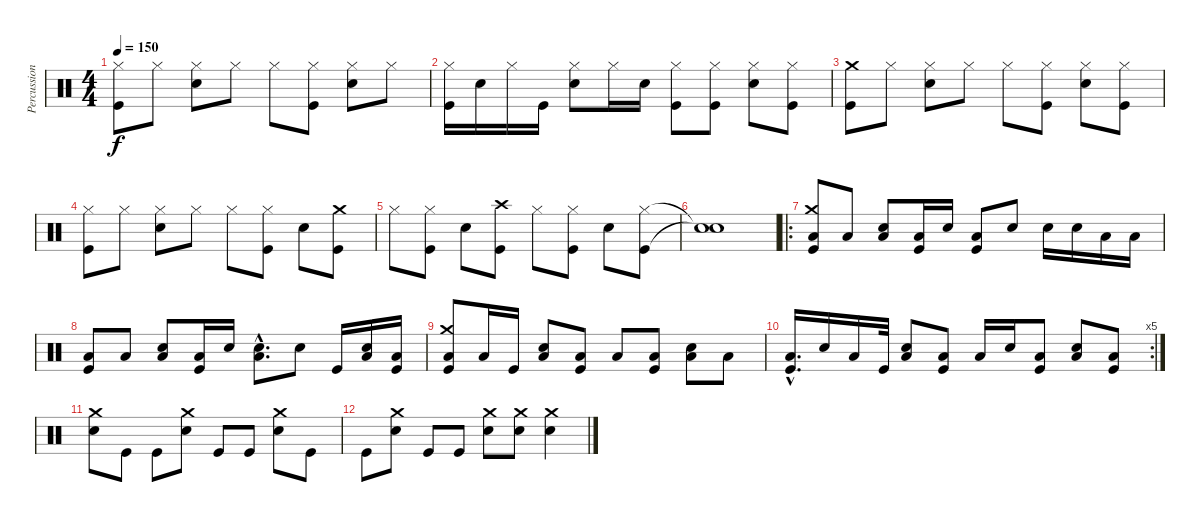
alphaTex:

\track ("Percussion" "Percussion") {instrument percussion}
\staff {score}
\articulation defaults
\ts (4 4)
\tempo 150
\clef neutral
\ks c
("Hi-Hat (closed)" "Kick (hit)").8{dy f} "Hi-Hat (closed)".8 ("Hi-Hat (closed)" "Electric Snare (hit)").8 "Hi-Hat (closed)".8 "Hi-Hat (closed)".8 ("Hi-Hat (closed)" "Kick (hit)").8 ("Hi-Hat (closed)" "Electric Snare (hit)").8 "Hi-Hat (closed)".8 |
("Hi-Hat (closed)" "Kick (hit)").16 "Electric Snare (hit)".16 "Hi-Hat (closed)".16 "Kick (hit)".16 ("Electric Snare (hit)" "Hi-Hat (closed)").8 "Hi-Hat (closed)".16 "Electric Snare (hit)".16 ("Kick (hit)" "Hi-Hat (closed)").8 ("Kick (hit)" "Hi-Hat (closed)").8 ("Electric Snare (hit)" "Hi-Hat (closed)").8 ("Kick (hit)" "Hi-Hat (closed)").8 |
("Crash medium (hit)" "Kick (hit)").8 "Hi-Hat (closed)".8 ("Hi-Hat (closed)" "Electric Snare (hit)").8 "Hi-Hat (closed)".8 "Hi-Hat (closed)".8 ("Hi-Hat (closed)" "Kick (hit)").8 ("Hi-Hat (closed)" "Electric Snare (hit)").8 ("Hi-Hat (closed)" "Kick (hit)").8 |
("Hi-Hat (closed)" "Kick (hit)").8 "Hi-Hat (closed)".8 ("Hi-Hat (closed)" "Electric Snare (hit)").8 "Hi-Hat (closed)".8 "Hi-Hat (closed)".8 ("Hi-Hat (closed)" "Kick (hit)").8 "Electric Snare (hit)".8 ("Kick (hit)" "Crash medium (hit)").8 |
"Hi-Hat (closed)".8 ("Hi-Hat (closed)" "Kick (hit)").8 "Electric Snare (hit)".8 ("Crash high (hit)" "Kick (hit)").8 "Hi-Hat (closed)".8 ("Kick (hit)" "Hi-Hat (closed)").8 "Electric Snare (hit)".8 ("Kick (hit)" "Hi-Hat (closed)").8 |
("Snare (hit)"{t} "Snare (hit)"{t}).1 |
\ro
("Low Floor Tom (hit)" "Kick (hit)" "Crash medium (hit)").8 "Low Floor Tom (hit)".8 ("Electric Snare (hit)" "Low Floor Tom (hit)").8 ("Kick (hit)" "Low Floor Tom (hit)").16 "Electric Snare (hit)".16 ("Low Floor Tom (hit)" "Kick (hit)").8 "Electric Snare (hit)".8 "Electric Snare (hit)".16 "Electric Snare (hit)".16 "Low Tom (hit)".16 "Low Tom (hit)".16 |
("Kick (hit)" "Low Floor Tom (hit)").8 "Low Floor Tom (hit)".8 ("Electric Snare (hit)" "Low Floor Tom (hit)").8 ("Kick (hit)" "Low Floor Tom (hit)").16 "Electric Snare (hit)".16 ("Low Floor Tom (hit)"{hac} "Electric Snare (hit)"{hac}).8{d} "Electric Snare (hit)".8 "Kick (hit)".16 ("Electric Snare (hit)" "Low Floor Tom (hit)").16 ("Low Floor Tom (hit)" "Kick (hit)").16 |
("Kick (hit)" "Low Floor Tom (hit)" "Crash medium (hit)").8 "Low Floor Tom (hit)".16 "Kick (hit)".16 ("Electric Snare (hit)" "Low Floor Tom (hit)").8 ("Kick (hit)" "Low Floor Tom (hit)").8 "Low Floor Tom (hit)".8 ("Low Floor Tom (hit)" "Kick (hit)").8 ("Low Floor Tom (hit)" "Electric Snare (hit)").8 "Low Floor Tom (hit)".8 |
\rc 5
("Low Floor Tom (hit)"{hac} "Kick (hit)"{hac}).16{d} "Electric Snare (hit)".16 "Low Floor Tom (hit)".16 "Kick (hit)".32 ("Electric Snare (hit)" "Low Floor Tom (hit)").8 ("Kick (hit)" "Low Floor Tom (hit)").8 "Low Floor Tom (hit)".16 "Electric Snare (hit)".16 ("Low Floor Tom (hit)" "Kick (hit)").8 ("Low Floor Tom (hit)" "Electric Snare (hit)").8 ("Kick (hit)" "Low Floor Tom (hit)").8 |
("Electric Snare (hit)" "Crash medium (hit)").8 "Kick (hit)".8 "Kick (hit)".8 ("Electric Snare (hit)" "Crash medium (hit)").8 "Kick (hit)".8 "Kick (hit)".8 ("Electric Snare (hit)" "Crash medium (hit)").8 "Kick (hit)".8 |
"Kick (hit)".8 ("Crash medium (hit)" "Electric Snare (hit)").8 "Kick (hit)".8 "Kick (hit)".8 ("Electric Snare (hit)" "Crash medium (hit)").8 ("Electric Snare (hit)" "Crash medium (hit)").8 ("Electric Snare (hit)" "Crash medium (hit)").4
